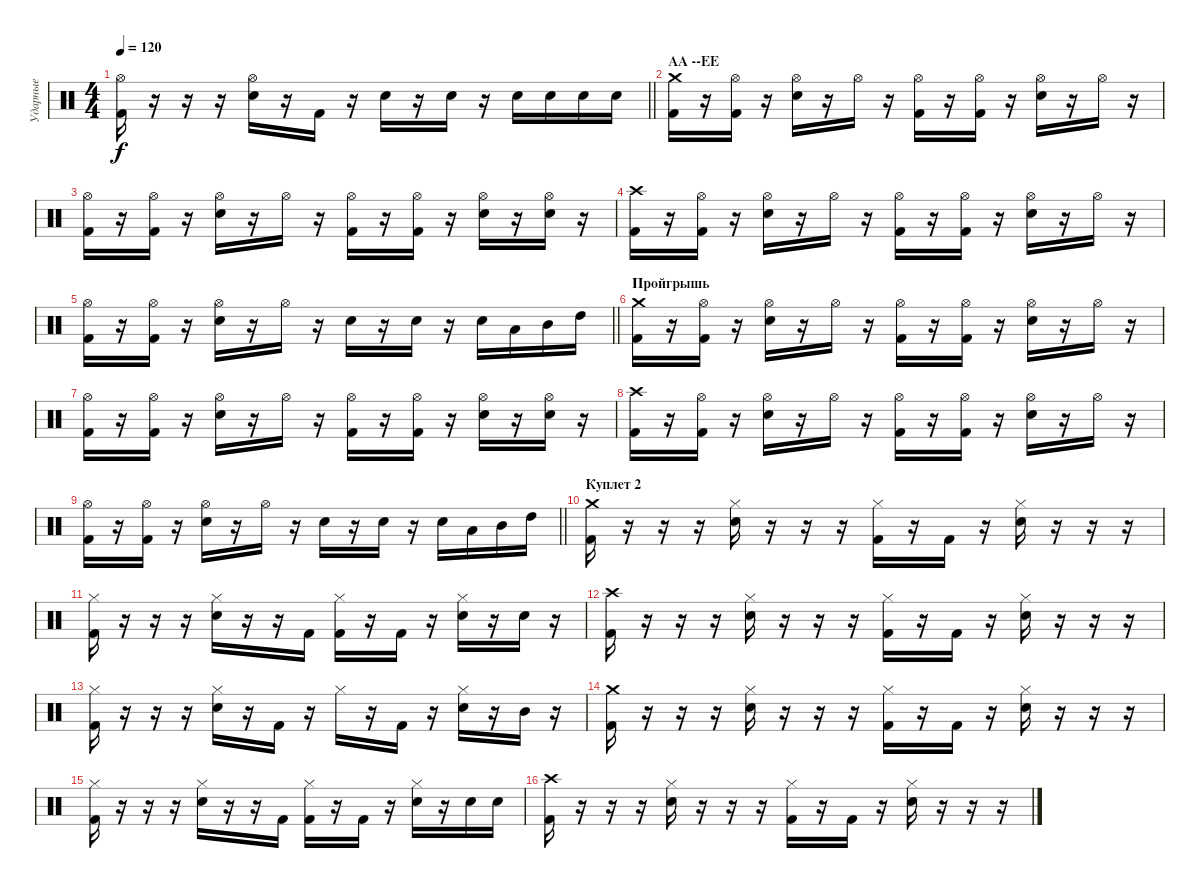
\track ("Ударные" "Ударные") {instrument percussion}
\staff {score}
\articulation defaults
\ts (4 4)
\tempo 120
\clef neutral
\barLineRight lightlight
\ks c
("Kick (hit) 2" "Hi-Hat (open)").16{dy f} r.16 r.16 r.16 ("Hi-Hat (open)" "Electric Snare (hit)").16 r.16 "Kick (hit) 2".16 r.16 "Electric Snare (hit)".16 r.16 "Electric Snare (hit)".16 r.16 "Electric Snare (hit)".16 "Electric Snare (hit)".16 "Electric Snare (hit)".16 "Electric Snare (hit)".16 |
\section ("" "АА --ЕЕ")
("Crash medium (hit)" "Kick (hit) 2").16 r.16 ("Hi-Hat (open)" "Kick (hit) 2").16 r.16 ("Hi-Hat (open)" "Electric Snare (hit)").16 r.16 "Hi-Hat (open)".16 r.16 ("Hi-Hat (open)" "Kick (hit) 2").16 r.16 ("Hi-Hat (open)" "Kick (hit) 2").16 r.16 ("Hi-Hat (open)" "Electric Snare (hit)").16 r.16 "Hi-Hat (open)".16 r.16 |
("Hi-Hat (open)" "Kick (hit) 2").16 r.16 ("Hi-Hat (open)" "Kick (hit) 2").16 r.16 ("Hi-Hat (open)" "Electric Snare (hit)").16 r.16 "Hi-Hat (open)".16 r.16 ("Hi-Hat (open)" "Kick (hit) 2").16 r.16 ("Hi-Hat (open)" "Kick (hit) 2").16 r.16 ("Hi-Hat (open)" "Electric Snare (hit)").16 r.16 ("Hi-Hat (open)" "Electric Snare (hit)").16 r.16 |
("Crash high (hit)" "Kick (hit) 2").16 r.16 ("Hi-Hat (open)" "Kick (hit) 2").16 r.16 ("Hi-Hat (open)" "Electric Snare (hit)").16 r.16 "Hi-Hat (open)".16 r.16 ("Hi-Hat (open)" "Kick (hit) 2").16 r.16 ("Hi-Hat (open)" "Kick (hit) 2").16 r.16 ("Hi-Hat (open)" "Electric Snare (hit)").16 r.16 "Hi-Hat (open)".16 r.16 |
\barLineRight lightlight
("Hi-Hat (open)" "Kick (hit) 2").16 r.16 ("Hi-Hat (open)" "Kick (hit) 2").16 r.16 ("Hi-Hat (open)" "Electric Snare (hit)").16 r.16 "Hi-Hat (open)".16 r.16 "Electric Snare (hit)".16 r.16 "Electric Snare (hit)".16 r.16 "Electric Snare (hit)".16 "Low Tom (hit)".16 "Mid Tom (hit)".16 "High Tom (hit)".16 |
\section ("" "Пройгрышь")
("Crash medium (hit)" "Kick (hit) 2").16 r.16 ("Hi-Hat (open)" "Kick (hit) 2").16 r.16 ("Hi-Hat (open)" "Electric Snare (hit)").16 r.16 "Hi-Hat (open)".16 r.16 ("Hi-Hat (open)" "Kick (hit) 2").16 r.16 ("Hi-Hat (open)" "Kick (hit) 2").16 r.16 ("Hi-Hat (open)" "Electric Snare (hit)").16 r.16 "Hi-Hat (open)".16 r.16 |
("Hi-Hat (open)" "Kick (hit) 2").16 r.16 ("Hi-Hat (open)" "Kick (hit) 2").16 r.16 ("Hi-Hat (open)" "Electric Snare (hit)").16 r.16 "Hi-Hat (open)".16 r.16 ("Hi-Hat (open)" "Kick (hit) 2").16 r.16 ("Hi-Hat (open)" "Kick (hit) 2").16 r.16 ("Hi-Hat (open)" "Electric Snare (hit)").16 r.16 ("Hi-Hat (open)" "Electric Snare (hit)").16 r.16 |
("Crash high (hit)" "Kick (hit) 2").16 r.16 ("Hi-Hat (open)" "Kick (hit) 2").16 r.16 ("Hi-Hat (open)" "Electric Snare (hit)").16 r.16 "Hi-Hat (open)".16 r.16 ("Hi-Hat (open)" "Kick (hit) 2").16 r.16 ("Hi-Hat (open)" "Kick (hit) 2").16 r.16 ("Hi-Hat (open)" "Electric Snare (hit)").16 r.16 "Hi-Hat (open)".16 r.16 |
\barLineRight lightlight
("Hi-Hat (open)" "Kick (hit) 2").16 r.16 ("Hi-Hat (open)" "Kick (hit) 2").16 r.16 ("Hi-Hat (open)" "Electric Snare (hit)").16 r.16 "Hi-Hat (open)".16 r.16 "Electric Snare (hit)".16 r.16 "Electric Snare (hit)".16 r.16 "Electric Snare (hit)".16 "Low Tom (hit)".16 "Mid Tom (hit)".16 "High Tom (hit)".16 |
\section ("" "Куплет 2")
("Kick (hit) 2" "Crash medium (hit)").16 r.16 r.16 r.16 ("Hi-Hat (closed)" "Electric Snare (hit)").16 r.16 r.16 r.16 ("Hi-Hat (closed)" "Kick (hit) 2").16 r.16 "Kick (hit) 2".16 r.16 ("Hi-Hat (closed)" "Electric Snare (hit)").16 r.16 r.16 r.16 |
("Kick (hit) 2" "Hi-Hat (closed)").16 r.16 r.16 r.16 ("Hi-Hat (closed)" "Electric Snare (hit)").16 r.16 r.16 "Kick (hit) 2".16 ("Hi-Hat (closed)" "Kick (hit) 2").16 r.16 "Kick (hit) 2".16 r.16 ("Hi-Hat (closed)" "Electric Snare (hit)").16 r.16 "Electric Snare (hit)".16 r.16 |
("Kick (hit) 2" "Crash high (hit)").16 r.16 r.16 r.16 ("Hi-Hat (closed)" "Electric Snare (hit)").16 r.16 r.16 r.16 ("Hi-Hat (closed)" "Kick (hit) 2").16 r.16 "Kick (hit) 2".16 r.16 ("Hi-Hat (closed)" "Electric Snare (hit)").16 r.16 r.16 r.16 |
("Kick (hit) 2" "Hi-Hat (closed)").16 r.16 r.16 r.16 ("Hi-Hat (closed)" "Electric Snare (hit)").16 r.16 "Kick (hit) 2".16 r.16 "Hi-Hat (closed)".16 r.16 "Kick (hit) 2".16 r.16 ("Hi-Hat (closed)" "Electric Snare (hit)").16 r.16 "Mid Tom (hit)".16 r.16 |
("Kick (hit) 2" "Crash medium (hit)").16 r.16 r.16 r.16 ("Hi-Hat (closed)" "Electric Snare (hit)").16 r.16 r.16 r.16 ("Hi-Hat (closed)" "Kick (hit) 2").16 r.16 "Kick (hit) 2".16 r.16 ("Hi-Hat (closed)" "Electric Snare (hit)").16 r.16 r.16 r.16 |
("Kick (hit) 2" "Hi-Hat (closed)").16 r.16 r.16 r.16 ("Hi-Hat (closed)" "Electric Snare (hit)").16 r.16 r.16 "Kick (hit) 2".16 ("Hi-Hat (closed)" "Kick (hit) 2").16 r.16 "Kick (hit) 2".16 r.16 ("Hi-Hat (closed)" "Electric Snare (hit)").16 r.16 "Electric Snare (hit)".16 "Electric Snare (hit)".16 |
("Kick (hit) 2" "Crash high (hit)").16 r.16 r.16 r.16 ("Hi-Hat (closed)" "Electric Snare (hit)").16 r.16 r.16 r.16 ("Hi-Hat (closed)" "Kick (hit) 2").16 r.16 "Kick (hit) 2".16 r.16 ("Hi-Hat (closed)" "Electric Snare (hit)").16 r.16 r.16 r.16
